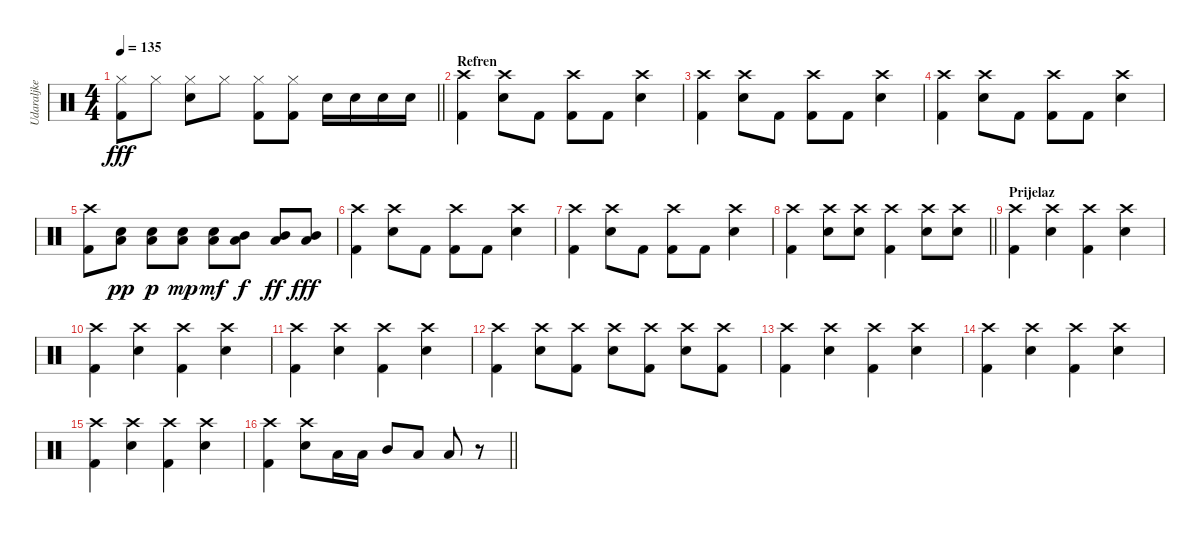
\track ("Udaraljke" "Udaraljke") {instrument percussion}
\staff
\articulation defaults
\ts (4 4)
\tempo 135
\clef neutral
\barLineRight lightlight
\ks c
("Hi-Hat (closed)" "Kick (hit) 2").8{dy fff} "Hi-Hat (closed)".8 ("Hi-Hat (closed)" "Snare (hit) 2").8 "Hi-Hat (closed)".8 ("Hi-Hat (closed)" "Kick (hit) 2").8 ("Hi-Hat (closed)" "Kick (hit) 2").8 "Snare (hit) 2".16 "Snare (hit) 2".16 "Snare (hit) 2".16 "Snare (hit) 2".16 |
\section ("" "Refren")
("Crash high (hit)" "Kick (hit) 2").4 ("Crash high (hit)" "Snare (hit) 2").8 "Kick (hit) 2".8 ("Crash high (hit)" "Kick (hit) 2").8 "Kick (hit) 2".8 ("Crash high (hit)" "Snare (hit) 2").4 |
("Crash high (hit)" "Kick (hit) 2").4 ("Crash high (hit)" "Snare (hit) 2").8 "Kick (hit) 2".8 ("Crash high (hit)" "Kick (hit) 2").8 "Kick (hit) 2".8 ("Crash high (hit)" "Snare (hit) 2").4 |
("Crash high (hit)" "Kick (hit) 2").4 ("Crash high (hit)" "Snare (hit) 2").8 "Kick (hit) 2".8 ("Crash high (hit)" "Kick (hit) 2").8 "Kick (hit) 2".8 ("Crash high (hit)" "Snare (hit) 2").4 |
("Crash high (hit)" "Kick (hit) 2").8 ("Low Tom (hit)" "Snare (hit) 2").8{dy pp} ("Low Tom (hit)" "Snare (hit) 2").8{dy p} ("Low Tom (hit)" "Snare (hit) 2").8{dy mp} ("Low Tom (hit)" "Snare (hit) 2").8{dy mf} ("Low Tom (hit)" "Mid Tom (hit)").8{dy f} ("Low Tom (hit)" "Mid Tom (hit)").8{dy ff} ("Low Tom (hit)" "Mid Tom (hit)").8{dy fff} |
("Crash high (hit)" "Kick (hit) 2").4 ("Crash high (hit)" "Snare (hit) 2").8 "Kick (hit) 2".8 ("Crash high (hit)" "Kick (hit) 2").8 "Kick (hit) 2".8 ("Crash high (hit)" "Snare (hit) 2").4 |
("Crash high (hit)" "Kick (hit) 2").4 ("Crash high (hit)" "Snare (hit) 2").8 "Kick (hit) 2".8 ("Crash high (hit)" "Kick (hit) 2").8 "Kick (hit) 2".8 ("Crash high (hit)" "Snare (hit) 2").4 |
\barLineRight lightlight
("Crash high (hit)" "Kick (hit) 2").4 ("Crash high (hit)" "Snare (hit) 2").8 ("Crash high (hit)" "Snare (hit) 2").8 ("Crash high (hit)" "Kick (hit) 2").4 ("Crash high (hit)" "Snare (hit) 2").8 ("Crash high (hit)" "Snare (hit) 2").8 |
\section ("" "Prijelaz")
("Crash high (hit)" "Kick (hit) 2").4 ("Crash high (hit)" "Snare (hit) 2").4 ("Crash high (hit)" "Kick (hit) 2").4 ("Crash high (hit)" "Snare (hit) 2").4 |
("Crash high (hit)" "Kick (hit) 2").4 ("Crash high (hit)" "Snare (hit) 2").4 ("Crash high (hit)" "Kick (hit) 2").4 ("Crash high (hit)" "Snare (hit) 2").4 |
("Crash high (hit)" "Kick (hit) 2").4 ("Crash high (hit)" "Snare (hit) 2").4 ("Crash high (hit)" "Kick (hit) 2").4 ("Crash high (hit)" "Snare (hit) 2").4 |
("Crash high (hit)" "Kick (hit) 2").4 ("Crash high (hit)" "Snare (hit) 2").8 ("Crash high (hit)" "Kick (hit) 2").8 ("Crash high (hit)" "Snare (hit) 2").8 ("Crash high (hit)" "Kick (hit) 2").8 ("Crash high (hit)" "Snare (hit) 2").8 ("Crash high (hit)" "Kick (hit) 2").8 |
("Crash high (hit)" "Kick (hit) 2").4 ("Crash high (hit)" "Snare (hit) 2").4 ("Crash high (hit)" "Kick (hit) 2").4 ("Crash high (hit)" "Snare (hit) 2").4 |
("Crash high (hit)" "Kick (hit) 2").4 ("Crash high (hit)" "Snare (hit) 2").4 ("Crash high (hit)" "Kick (hit) 2").4 ("Crash high (hit)" "Snare (hit) 2").4 |
("Crash high (hit)" "Kick (hit) 2").4 ("Crash high (hit)" "Snare (hit) 2").4 ("Crash high (hit)" "Kick (hit) 2").4 ("Crash high (hit)" "Snare (hit) 2").4 |
\barLineRight lightlight
("Crash high (hit)" "Kick (hit) 2").4 ("Crash high (hit)" "Snare (hit) 2").8 "Low Tom (hit)".16 "Low Tom (hit)".16 "Mid Tom (hit)".8 "Low Tom (hit)".8 "Low Tom (hit)".8 r.8
